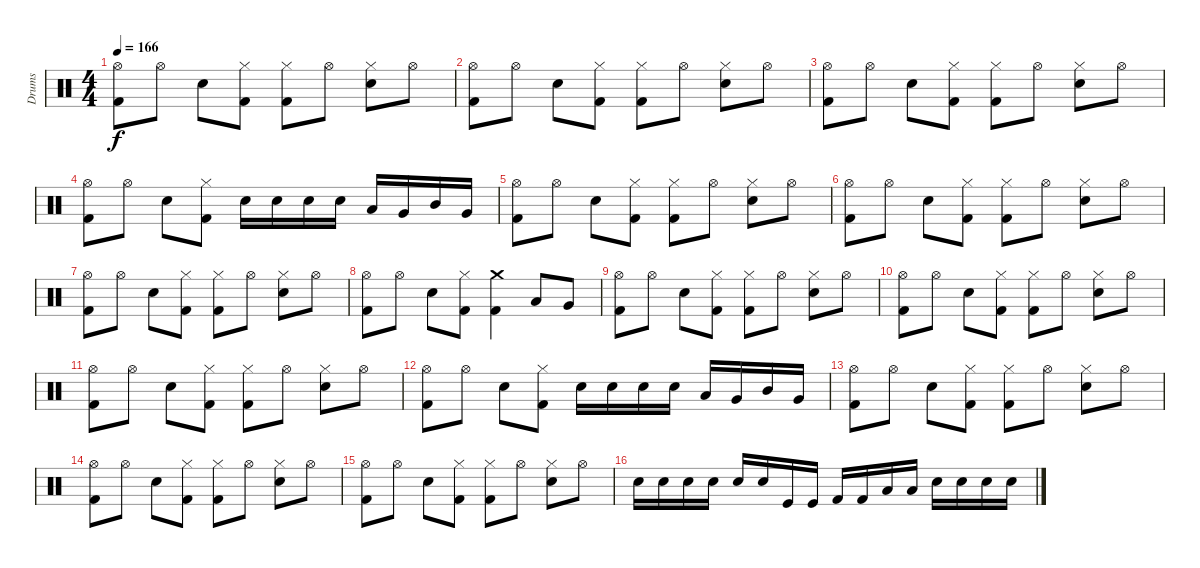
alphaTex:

\track ("Drums" "Drums") {instrument percussion}
\staff {score}
\articulation defaults
\ts (4 4)
\tempo 166
\clef neutral
\ks c
("Hi-Hat (open)" "Kick (hit) 2").8{dy f} "Hi-Hat (open)".8 "Electric Snare (hit)".8 ("Hi-Hat (closed)" "Kick (hit) 2").8 ("Hi-Hat (closed)" "Kick (hit) 2").8 "Hi-Hat (open)".8 ("Hi-Hat (closed)" "Electric Snare (hit)").8 "Hi-Hat (open)".8 |
("Hi-Hat (open)" "Kick (hit) 2").8 "Hi-Hat (open)".8 "Electric Snare (hit)".8 ("Hi-Hat (closed)" "Kick (hit) 2").8 ("Hi-Hat (closed)" "Kick (hit) 2").8 "Hi-Hat (open)".8 ("Hi-Hat (closed)" "Electric Snare (hit)").8 "Hi-Hat (open)".8 |
("Hi-Hat (open)" "Kick (hit) 2").8 "Hi-Hat (open)".8 "Electric Snare (hit)".8 ("Hi-Hat (closed)" "Kick (hit) 2").8 ("Hi-Hat (closed)" "Kick (hit) 2").8 "Hi-Hat (open)".8 ("Hi-Hat (closed)" "Electric Snare (hit)").8 "Hi-Hat (open)".8 |
("Hi-Hat (open)" "Kick (hit) 2").8 "Hi-Hat (open)".8 "Electric Snare (hit)".8 ("Hi-Hat (closed)" "Kick (hit) 2").8 "Electric Snare (hit)".16 "Electric Snare (hit)".16 "Snare (hit) 2".16 "Snare (hit) 2".16 "Low Tom (hit)".16 "Very Low Tom (hit)".16 "Mid Tom (hit)".16 "Very Low Tom (hit)".16 |
("Hi-Hat (open)" "Kick (hit) 2").8 "Hi-Hat (open)".8 "Electric Snare (hit)".8 ("Hi-Hat (closed)" "Kick (hit) 2").8 ("Hi-Hat (closed)" "Kick (hit) 2").8 "Hi-Hat (open)".8 ("Hi-Hat (closed)" "Electric Snare (hit)").8 "Hi-Hat (open)".8 |
("Hi-Hat (open)" "Kick (hit) 2").8 "Hi-Hat (open)".8 "Electric Snare (hit)".8 ("Hi-Hat (closed)" "Kick (hit) 2").8 ("Hi-Hat (closed)" "Kick (hit) 2").8 "Hi-Hat (open)".8 ("Hi-Hat (closed)" "Electric Snare (hit)").8 "Hi-Hat (open)".8 |
("Hi-Hat (open)" "Kick (hit) 2").8 "Hi-Hat (open)".8 "Electric Snare (hit)".8 ("Hi-Hat (closed)" "Kick (hit) 2").8 ("Hi-Hat (closed)" "Kick (hit) 2").8 "Hi-Hat (open)".8 ("Hi-Hat (closed)" "Electric Snare (hit)").8 "Hi-Hat (open)".8 |
("Hi-Hat (open)" "Kick (hit) 2").8 "Hi-Hat (open)".8 "Electric Snare (hit)".8 ("Hi-Hat (closed)" "Kick (hit) 2").8 ("Crash medium (hit)" "Kick (hit) 2").4 "Low Tom (hit)".8 "Very Low Tom (hit)".8 |
("Hi-Hat (open)" "Kick (hit) 2").8 "Hi-Hat (open)".8 "Electric Snare (hit)".8 ("Hi-Hat (closed)" "Kick (hit) 2").8 ("Hi-Hat (closed)" "Kick (hit) 2").8 "Hi-Hat (open)".8 ("Hi-Hat (closed)" "Electric Snare (hit)").8 "Hi-Hat (open)".8 |
("Hi-Hat (open)" "Kick (hit) 2").8 "Hi-Hat (open)".8 "Electric Snare (hit)".8 ("Hi-Hat (closed)" "Kick (hit) 2").8 ("Hi-Hat (closed)" "Kick (hit) 2").8 "Hi-Hat (open)".8 ("Hi-Hat (closed)" "Electric Snare (hit)").8 "Hi-Hat (open)".8 |
("Hi-Hat (open)" "Kick (hit) 2").8 "Hi-Hat (open)".8 "Electric Snare (hit)".8 ("Hi-Hat (closed)" "Kick (hit) 2").8 ("Hi-Hat (closed)" "Kick (hit) 2").8 "Hi-Hat (open)".8 ("Hi-Hat (closed)" "Electric Snare (hit)").8 "Hi-Hat (open)".8 |
("Hi-Hat (open)" "Kick (hit) 2").8 "Hi-Hat (open)".8 "Electric Snare (hit)".8 ("Hi-Hat (closed)" "Kick (hit) 2").8 "Electric Snare (hit)".16 "Electric Snare (hit)".16 "Snare (hit) 2".16 "Snare (hit) 2".16 "Low Tom (hit)".16 "Very Low Tom (hit)".16 "Mid Tom (hit)".16 "Very Low Tom (hit)".16 |
("Hi-Hat (open)" "Kick (hit) 2").8 "Hi-Hat (open)".8 "Electric Snare (hit)".8 ("Hi-Hat (closed)" "Kick (hit) 2").8 ("Hi-Hat (closed)" "Kick (hit) 2").8 "Hi-Hat (open)".8 ("Hi-Hat (closed)" "Electric Snare (hit)").8 "Hi-Hat (open)".8 |
("Hi-Hat (open)" "Kick (hit) 2").8 "Hi-Hat (open)".8 "Electric Snare (hit)".8 ("Hi-Hat (closed)" "Kick (hit) 2").8 ("Hi-Hat (closed)" "Kick (hit) 2").8 "Hi-Hat (open)".8 ("Hi-Hat (closed)" "Electric Snare (hit)").8 "Hi-Hat (open)".8 |
("Hi-Hat (open)" "Kick (hit) 2").8 "Hi-Hat (open)".8 "Electric Snare (hit)".8 ("Hi-Hat (closed)" "Kick (hit) 2").8 ("Hi-Hat (closed)" "Kick (hit) 2").8 "Hi-Hat (open)".8 ("Hi-Hat (closed)" "Electric Snare (hit)").8 "Hi-Hat (open)".8 |
"Electric Snare (hit)".16 "Electric Snare (hit)".16 "Electric Snare (hit)".16 "Electric Snare (hit)".16 "Snare (hit) 2".16 "Snare (hit) 2".16 "Kick (hit)".16 "Kick (hit)".16 "Kick (hit) 2".16 "Kick (hit) 2".16 "Low Tom (hit)".16 "Low Tom (hit)".16 "Electric Snare (hit)".16 "Electric Snare (hit)".16 "Electric Snare (hit)".16 "Electric Snare (hit)".16
